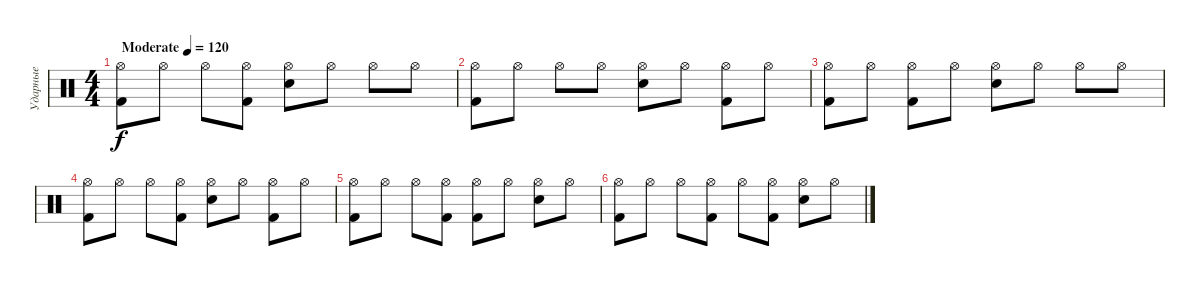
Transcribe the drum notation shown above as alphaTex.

\track ("Ударные" "Ударные") {instrument percussion}
\staff {score}
\articulation defaults
\ts (4 4)
\tempo (120 "Moderate")
\clef neutral
\ks c
("Hi-Hat (open)" "Kick (hit) 2").8{dy f} "Hi-Hat (open)".8 "Hi-Hat (open)".8 ("Hi-Hat (open)" "Kick (hit) 2").8 ("Hi-Hat (open)" "Electric Snare (hit)").8 "Hi-Hat (open)".8 "Hi-Hat (open)".8 "Hi-Hat (open)".8 |
("Hi-Hat (open)" "Kick (hit) 2").8 "Hi-Hat (open)".8 "Hi-Hat (open)".8 "Hi-Hat (open)".8 ("Hi-Hat (open)" "Electric Snare (hit)").8 "Hi-Hat (open)".8 ("Hi-Hat (open)" "Kick (hit) 2").8 "Hi-Hat (open)".8 |
("Hi-Hat (open)" "Kick (hit) 2").8 "Hi-Hat (open)".8 ("Hi-Hat (open)" "Kick (hit) 2").8 "Hi-Hat (open)".8 ("Hi-Hat (open)" "Electric Snare (hit)").8 "Hi-Hat (open)".8 "Hi-Hat (open)".8 "Hi-Hat (open)".8 |
("Hi-Hat (open)" "Kick (hit) 2").8 "Hi-Hat (open)".8 "Hi-Hat (open)".8 ("Hi-Hat (open)" "Kick (hit) 2").8 ("Hi-Hat (open)" "Electric Snare (hit)").8 "Hi-Hat (open)".8 ("Hi-Hat (open)" "Kick (hit) 2").8 "Hi-Hat (open)".8 |
("Hi-Hat (open)" "Kick (hit) 2").8 "Hi-Hat (open)".8 "Hi-Hat (open)".8 ("Hi-Hat (open)" "Kick (hit) 2").8 ("Hi-Hat (open)" "Kick (hit) 2").8 "Hi-Hat (open)".8 ("Hi-Hat (open)" "Electric Snare (hit)").8 "Hi-Hat (open)".8 |
("Hi-Hat (open)" "Kick (hit) 2").8 "Hi-Hat (open)".8 "Hi-Hat (open)".8 ("Hi-Hat (open)" "Kick (hit) 2").8 "Hi-Hat (open)".8 ("Hi-Hat (open)" "Kick (hit) 2").8 ("Hi-Hat (open)" "Electric Snare (hit)").8 "Hi-Hat (open)".8
